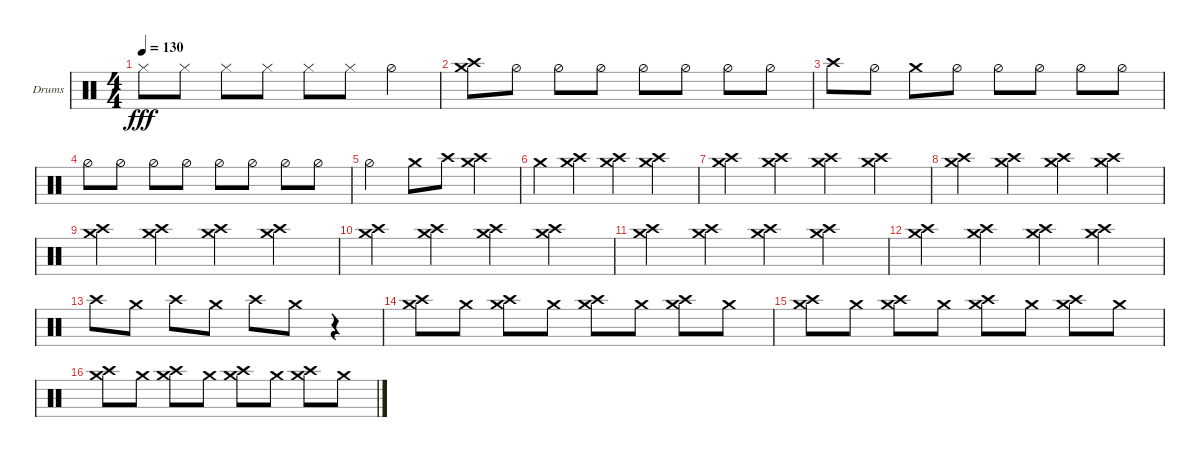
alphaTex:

\defaultSystemsLayout 4
\bracketExtendMode groupsimilarinstruments
\firstSystemTrackNameOrientation horizontal
\otherSystemsTrackNameOrientation horizontal
\track ("Helders" "Drums") {instrument percussion}
\staff {score}
\articulation defaults
\ts (4 4)
\tempo 130
\clef neutral
\ks c "Hi-Hat (closed)".8{dy fff} "Hi-Hat (closed)".8 "Hi-Hat (closed)".8 "Hi-Hat (closed)".8 "Hi-Hat (closed)".8 "Hi-Hat (closed)".8 "Hi-Hat (half)".4
|
("Crash high (hit)" "Crash medium (hit)").8 "Hi-Hat (half)".8 "Hi-Hat (half)".8 "Hi-Hat (half)".8 "Hi-Hat (half)".8 "Hi-Hat (half)".8 "Hi-Hat (half)".8 "Hi-Hat (half)".8 |
"Crash high (hit)".8 "Hi-Hat (half)".8 "Crash medium (hit)".8 "Hi-Hat (half)".8 "Hi-Hat (half)".8 "Hi-Hat (half)".8 "Hi-Hat (half)".8 "Hi-Hat (half)".8 |
"Hi-Hat (half)".8 "Hi-Hat (half)".8 "Hi-Hat (half)".8 "Hi-Hat (half)".8 "Hi-Hat (half)".8 "Hi-Hat (half)".8 "Hi-Hat (half)".8 "Hi-Hat (half)".8 |
"Hi-Hat (half)".2 "Crash medium (hit)".8 "Crash high (hit)".8 ("Crash high (hit)" "Crash medium (hit)").4 |
"Crash medium (hit)".4 ("Crash high (hit)" "Crash medium (hit)").4 ("Crash high (hit)" "Crash medium (hit)").4 ("Crash high (hit)" "Crash medium (hit)").4 |
("Crash medium (hit)" "Crash high (hit)").4 ("Crash medium (hit)" "Crash high (hit)").4 ("Crash medium (hit)" "Crash high (hit)").4 ("Crash medium (hit)" "Crash high (hit)").4 |
("Crash medium (hit)" "Crash high (hit)").4 ("Crash medium (hit)" "Crash high (hit)").4 ("Crash medium (hit)" "Crash high (hit)").4 ("Crash medium (hit)" "Crash high (hit)").4 |
("Crash medium (hit)" "Crash high (hit)").4 ("Crash medium (hit)" "Crash high (hit)").4 ("Crash medium (hit)" "Crash high (hit)").4 ("Crash medium (hit)" "Crash high (hit)").4 |
("Crash medium (hit)" "Crash high (hit)").4 ("Crash medium (hit)" "Crash high (hit)").4 ("Crash medium (hit)" "Crash high (hit)").4 ("Crash medium (hit)" "Crash high (hit)").4 |
("Crash medium (hit)" "Crash high (hit)").4 ("Crash medium (hit)" "Crash high (hit)").4 ("Crash medium (hit)" "Crash high (hit)").4 ("Crash medium (hit)" "Crash high (hit)").4 |
("Crash medium (hit)" "Crash high (hit)").4 ("Crash medium (hit)" "Crash high (hit)").4 ("Crash medium (hit)" "Crash high (hit)").4 ("Crash medium (hit)" "Crash high (hit)").4 |
"Crash high (hit)".8 "Crash medium (hit)".8 "Crash high (hit)".8 "Crash medium (hit)".8 "Crash high (hit)".8 "Crash medium (hit)".8 r.4 |
("Crash medium (hit)" "Crash high (hit)").8 "Crash medium (hit)".8 ("Crash medium (hit)" "Crash high (hit)").8 "Crash medium (hit)".8 ("Crash medium (hit)" "Crash high (hit)").8 "Crash medium (hit)".8 ("Crash medium (hit)" "Crash high (hit)").8 "Crash medium (hit)".8 |
("Crash medium (hit)" "Crash high (hit)").8 "Crash medium (hit)".8 ("Crash medium (hit)" "Crash high (hit)").8 "Crash medium (hit)".8 ("Crash medium (hit)" "Crash high (hit)").8 "Crash medium (hit)".8 ("Crash medium (hit)" "Crash high (hit)").8 "Crash medium (hit)".8 |
("Crash medium (hit)" "Crash high (hit)").8 "Crash medium (hit)".8 ("Crash medium (hit)" "Crash high (hit)").8 "Crash medium (hit)".8 ("Crash medium (hit)" "Crash high (hit)").8 "Crash medium (hit)".8 ("Crash medium (hit)" "Crash high (hit)").8 "Crash medium (hit)".8
